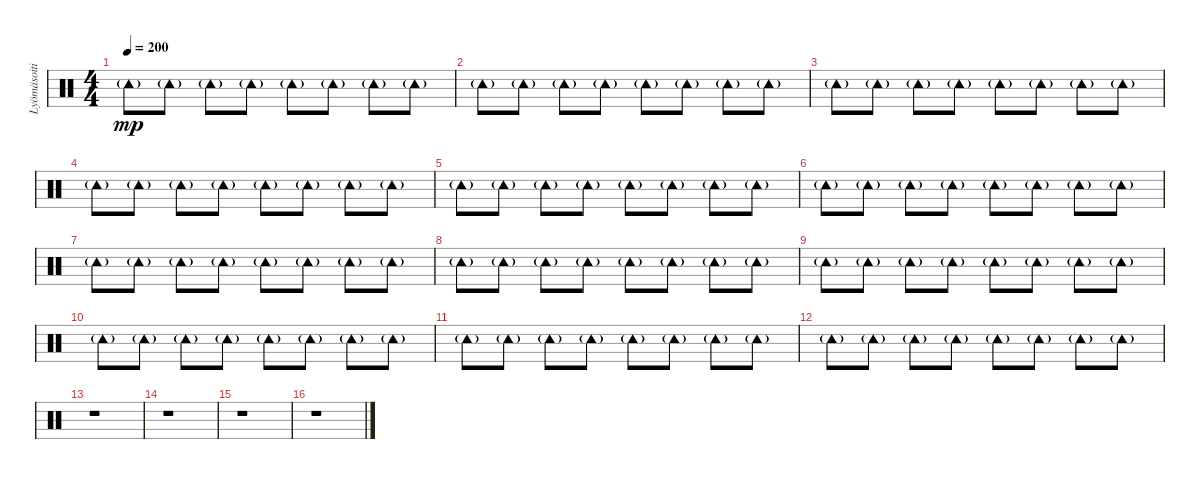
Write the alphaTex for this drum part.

\track ("Lyömäsoitin" "Lyömäsoiti") {instrument percussion}
\staff {score}
\articulation defaults
\ts (4 4)
\tempo 200
\clef neutral
\ks c "Tambourine (hit)"{g}.8{dy mp} "Tambourine (hit)"{g}.8 "Tambourine (hit)"{g}.8 "Tambourine (hit)"{g}.8 "Tambourine (hit)"{g}.8 "Tambourine (hit)"{g}.8 "Tambourine (hit)"{g}.8 "Tambourine (hit)"{g}.8
|
"Tambourine (hit)"{g}.8 "Tambourine (hit)"{g}.8 "Tambourine (hit)"{g}.8 "Tambourine (hit)"{g}.8 "Tambourine (hit)"{g}.8 "Tambourine (hit)"{g}.8 "Tambourine (hit)"{g}.8 "Tambourine (hit)"{g}.8 |
"Tambourine (hit)"{g}.8 "Tambourine (hit)"{g}.8 "Tambourine (hit)"{g}.8 "Tambourine (hit)"{g}.8 "Tambourine (hit)"{g}.8 "Tambourine (hit)"{g}.8 "Tambourine (hit)"{g}.8 "Tambourine (hit)"{g}.8 |
"Tambourine (hit)"{g}.8 "Tambourine (hit)"{g}.8 "Tambourine (hit)"{g}.8 "Tambourine (hit)"{g}.8 "Tambourine (hit)"{g}.8 "Tambourine (hit)"{g}.8 "Tambourine (hit)"{g}.8 "Tambourine (hit)"{g}.8 |
"Tambourine (hit)"{g}.8 "Tambourine (hit)"{g}.8 "Tambourine (hit)"{g}.8 "Tambourine (hit)"{g}.8 "Tambourine (hit)"{g}.8 "Tambourine (hit)"{g}.8 "Tambourine (hit)"{g}.8 "Tambourine (hit)"{g}.8 |
"Tambourine (hit)"{g}.8 "Tambourine (hit)"{g}.8 "Tambourine (hit)"{g}.8 "Tambourine (hit)"{g}.8 "Tambourine (hit)"{g}.8 "Tambourine (hit)"{g}.8 "Tambourine (hit)"{g}.8 "Tambourine (hit)"{g}.8 |
"Tambourine (hit)"{g}.8 "Tambourine (hit)"{g}.8 "Tambourine (hit)"{g}.8 "Tambourine (hit)"{g}.8 "Tambourine (hit)"{g}.8 "Tambourine (hit)"{g}.8 "Tambourine (hit)"{g}.8 "Tambourine (hit)"{g}.8 |
"Tambourine (hit)"{g}.8 "Tambourine (hit)"{g}.8 "Tambourine (hit)"{g}.8 "Tambourine (hit)"{g}.8 "Tambourine (hit)"{g}.8 "Tambourine (hit)"{g}.8 "Tambourine (hit)"{g}.8 "Tambourine (hit)"{g}.8 |
"Tambourine (hit)"{g}.8 "Tambourine (hit)"{g}.8 "Tambourine (hit)"{g}.8 "Tambourine (hit)"{g}.8 "Tambourine (hit)"{g}.8 "Tambourine (hit)"{g}.8 "Tambourine (hit)"{g}.8 "Tambourine (hit)"{g}.8 |
"Tambourine (hit)"{g}.8 "Tambourine (hit)"{g}.8 "Tambourine (hit)"{g}.8 "Tambourine (hit)"{g}.8 "Tambourine (hit)"{g}.8 "Tambourine (hit)"{g}.8 "Tambourine (hit)"{g}.8 "Tambourine (hit)"{g}.8 |
"Tambourine (hit)"{g}.8 "Tambourine (hit)"{g}.8 "Tambourine (hit)"{g}.8 "Tambourine (hit)"{g}.8 "Tambourine (hit)"{g}.8 "Tambourine (hit)"{g}.8 "Tambourine (hit)"{g}.8 "Tambourine (hit)"{g}.8 |
"Tambourine (hit)"{g}.8 "Tambourine (hit)"{g}.8 "Tambourine (hit)"{g}.8 "Tambourine (hit)"{g}.8 "Tambourine (hit)"{g}.8 "Tambourine (hit)"{g}.8 "Tambourine (hit)"{g}.8 "Tambourine (hit)"{g}.8 |
r.1 |
r.1 |
r.1 |
r.1
